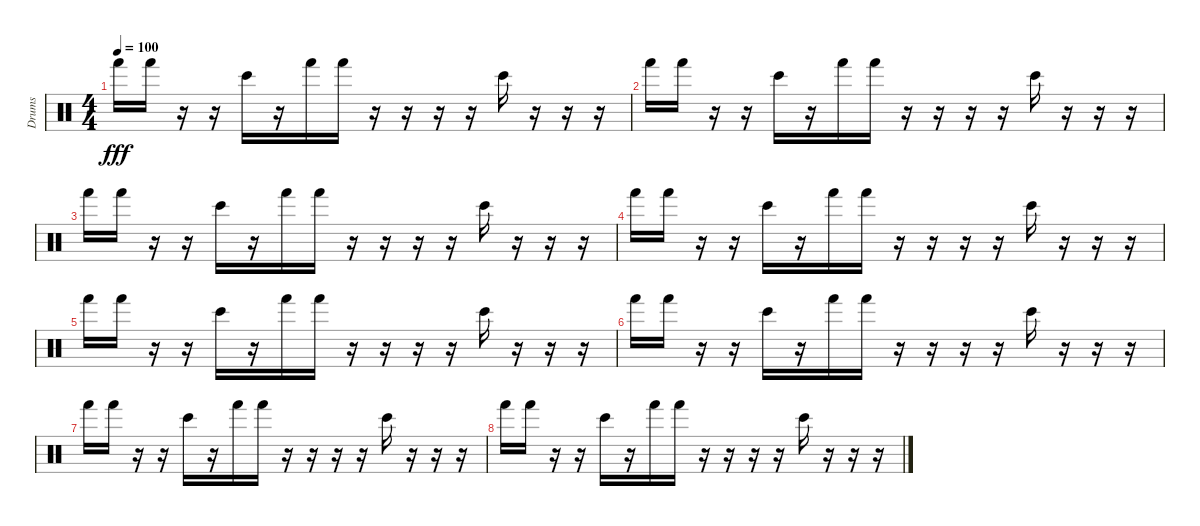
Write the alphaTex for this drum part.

\track ("Drums" "Drums") {instrument percussion}
\staff {score}
\articulation defaults
\ts (4 4)
\tempo 100
\clef neutral
\ks c "Hand (hit)".16{dy fff} "Hand (hit)".16
r.16 r.16 "Bongo High (hit)".16 r.16 "Hand (hit)".16 "Hand (hit)".16 r.16 r.16 r.16 r.16 "Bongo High (hit)".16 r.16 r.16 r.16 |
"Hand (hit)".16 "Hand (hit)".16 r.16 r.16 "Bongo High (hit)".16 r.16 "Hand (hit)".16 "Hand (hit)".16 r.16 r.16 r.16 r.16 "Bongo High (hit)".16 r.16 r.16 r.16 |
"Hand (hit)".16 "Hand (hit)".16 r.16 r.16 "Bongo High (hit)".16 r.16 "Hand (hit)".16 "Hand (hit)".16 r.16 r.16 r.16 r.16 "Bongo High (hit)".16 r.16 r.16 r.16 |
"Hand (hit)".16 "Hand (hit)".16 r.16 r.16 "Bongo High (hit)".16 r.16 "Hand (hit)".16 "Hand (hit)".16 r.16 r.16 r.16 r.16 "Bongo High (hit)".16 r.16 r.16 r.16 |
"Hand (hit)".16 "Hand (hit)".16 r.16 r.16 "Bongo High (hit)".16 r.16 "Hand (hit)".16 "Hand (hit)".16 r.16 r.16 r.16 r.16 "Bongo High (hit)".16 r.16 r.16 r.16 |
"Hand (hit)".16 "Hand (hit)".16 r.16 r.16 "Bongo High (hit)".16 r.16 "Hand (hit)".16 "Hand (hit)".16 r.16 r.16 r.16 r.16 "Bongo High (hit)".16 r.16 r.16 r.16 |
"Hand (hit)".16 "Hand (hit)".16 r.16 r.16 "Bongo High (hit)".16 r.16 "Hand (hit)".16 "Hand (hit)".16 r.16 r.16 r.16 r.16 "Bongo High (hit)".16 r.16 r.16 r.16 |
"Hand (hit)".16 "Hand (hit)".16 r.16 r.16 "Bongo High (hit)".16 r.16 "Hand (hit)".16 "Hand (hit)".16 r.16 r.16 r.16 r.16 "Bongo High (hit)".16 r.16 r.16 r.16
